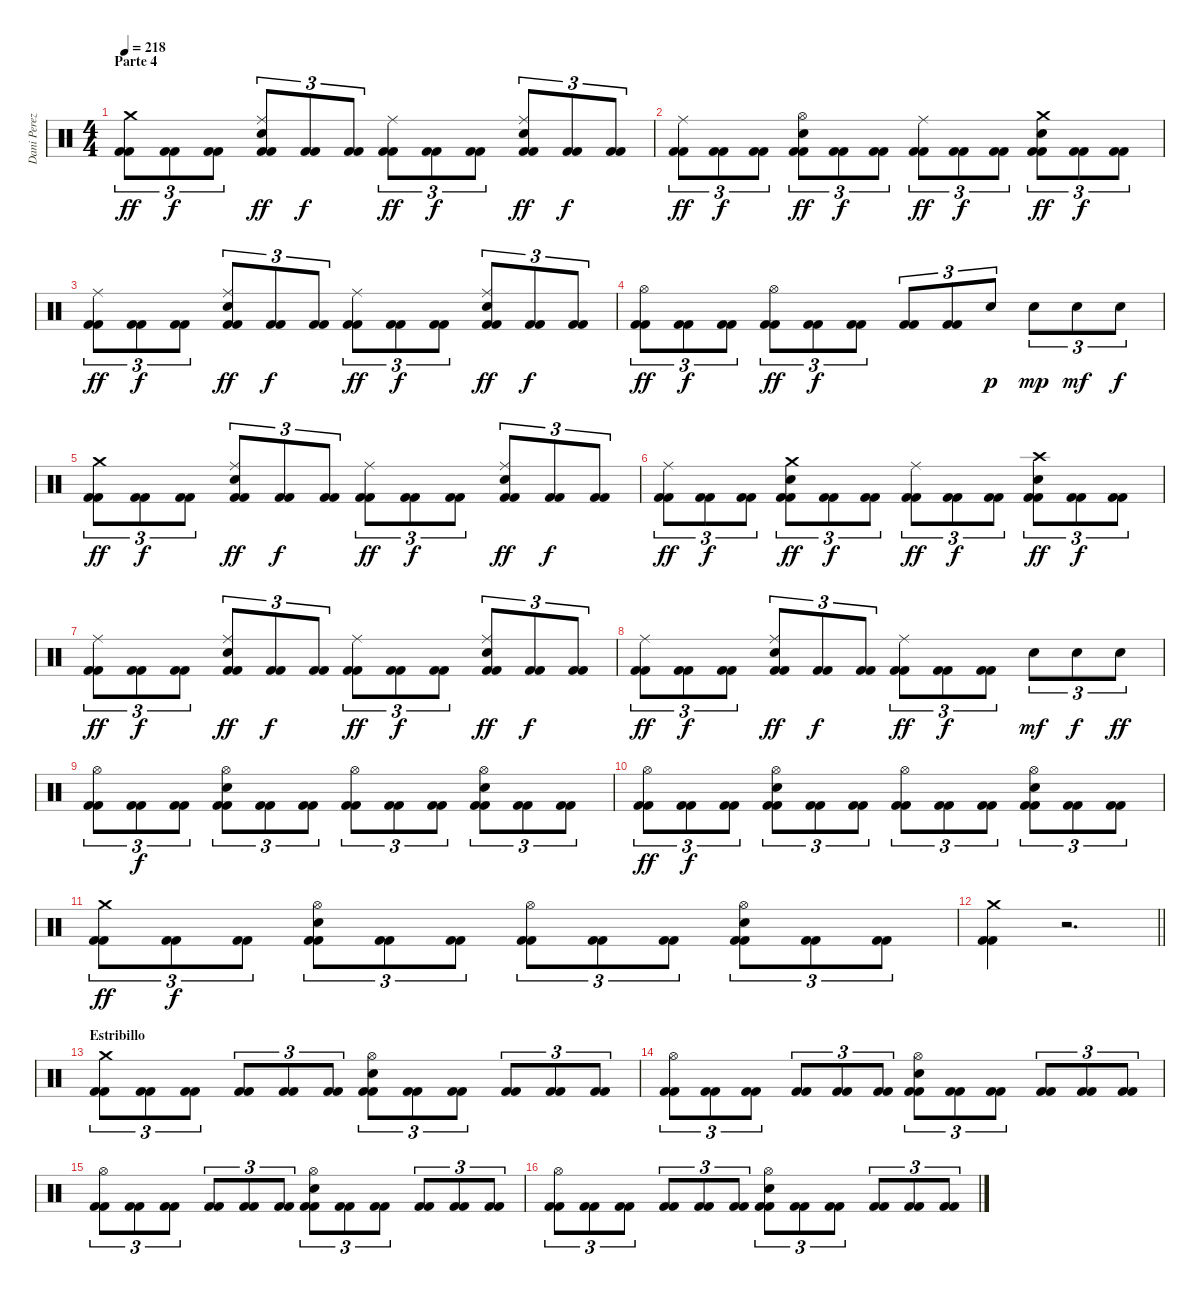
\track ("Dani Perez" "Dani Perez") {instrument percussion}
\staff {score}
\articulation defaults
\ts (4 4)
\section ("" "Parte 4")
\tempo 218
\clef neutral
\ks c
("Crash medium (hit)" "Kick (hit) 2" "Kick (hit) 2").8{tu (3 2) dy ff} ("Kick (hit) 2" "Kick (hit) 2").8{tu (3 2) dy f} ("Kick (hit) 2" "Kick (hit) 2").8{tu (3 2)} ("Ride (middle)" "Snare (hit) 2" "Kick (hit) 2" "Kick (hit) 2").8{tu (3 2) dy ff} ("Kick (hit) 2" "Kick (hit) 2").8{tu (3 2) dy f} ("Kick (hit) 2" "Kick (hit) 2").8{tu (3 2)} ("Ride (middle)" "Kick (hit) 2" "Kick (hit) 2").8{tu (3 2) dy ff} ("Kick (hit) 2" "Kick (hit) 2").8{tu (3 2) dy f} ("Kick (hit) 2" "Kick (hit) 2").8{tu (3 2)} ("Ride (middle)" "Snare (hit) 2" "Kick (hit) 2" "Kick (hit) 2").8{tu (3 2) dy ff} ("Kick (hit) 2" "Kick (hit) 2").8{tu (3 2) dy f} ("Kick (hit) 2" "Kick (hit) 2").8{tu (3 2)} |
("Ride (middle)" "Kick (hit) 2" "Kick (hit) 2").8{tu (3 2) dy ff} ("Kick (hit) 2" "Kick (hit) 2").8{tu (3 2) dy f} ("Kick (hit) 2" "Kick (hit) 2").8{tu (3 2)} ("Hi-Hat (open)" "Snare (hit) 2" "Kick (hit) 2" "Kick (hit) 2").8{tu (3 2) dy ff} ("Kick (hit) 2" "Kick (hit) 2").8{tu (3 2) dy f} ("Kick (hit) 2" "Kick (hit) 2").8{tu (3 2)} ("Ride (middle)" "Kick (hit) 2" "Kick (hit) 2").8{tu (3 2) dy ff} ("Kick (hit) 2" "Kick (hit) 2").8{tu (3 2) dy f} ("Kick (hit) 2" "Kick (hit) 2").8{tu (3 2)} ("Crash medium (hit)" "Snare (hit) 2" "Kick (hit) 2" "Kick (hit) 2").8{tu (3 2) dy ff} ("Kick (hit) 2" "Kick (hit) 2").8{tu (3 2) dy f} ("Kick (hit) 2" "Kick (hit) 2").8{tu (3 2)} |
("Ride (middle)" "Kick (hit) 2" "Kick (hit) 2").8{tu (3 2) dy ff} ("Kick (hit) 2" "Kick (hit) 2").8{tu (3 2) dy f} ("Kick (hit) 2" "Kick (hit) 2").8{tu (3 2)} ("Ride (middle)" "Snare (hit) 2" "Kick (hit) 2" "Kick (hit) 2").8{tu (3 2) dy ff} ("Kick (hit) 2" "Kick (hit) 2").8{tu (3 2) dy f} ("Kick (hit) 2" "Kick (hit) 2").8{tu (3 2)} ("Ride (middle)" "Kick (hit) 2" "Kick (hit) 2").8{tu (3 2) dy ff} ("Kick (hit) 2" "Kick (hit) 2").8{tu (3 2) dy f} ("Kick (hit) 2" "Kick (hit) 2").8{tu (3 2)} ("Ride (middle)" "Snare (hit) 2" "Kick (hit) 2" "Kick (hit) 2").8{tu (3 2) dy ff} ("Kick (hit) 2" "Kick (hit) 2").8{tu (3 2) dy f} ("Kick (hit) 2" "Kick (hit) 2").8{tu (3 2)} |
("Hi-Hat (open)" "Kick (hit) 2" "Kick (hit) 2").8{tu (3 2) dy ff} ("Kick (hit) 2" "Kick (hit) 2").8{tu (3 2) dy f} ("Kick (hit) 2" "Kick (hit) 2").8{tu (3 2)} ("Hi-Hat (open)" "Kick (hit) 2" "Kick (hit) 2").8{tu (3 2) dy ff} ("Kick (hit) 2" "Kick (hit) 2").8{tu (3 2) dy f} ("Kick (hit) 2" "Kick (hit) 2").8{tu (3 2)} ("Kick (hit) 2" "Kick (hit) 2").8{tu (3 2)} ("Kick (hit) 2" "Kick (hit) 2").8{tu (3 2)} "Snare (hit) 2".8{tu (3 2) dy p} "Snare (hit) 2".8{tu (3 2) dy mp} "Snare (hit) 2".8{tu (3 2) dy mf} "Snare (hit) 2".8{tu (3 2) dy f} |
("Crash medium (hit)" "Kick (hit) 2" "Kick (hit) 2").8{tu (3 2) dy ff} ("Kick (hit) 2" "Kick (hit) 2").8{tu (3 2) dy f} ("Kick (hit) 2" "Kick (hit) 2").8{tu (3 2)} ("Ride (middle)" "Snare (hit) 2" "Kick (hit) 2" "Kick (hit) 2").8{tu (3 2) dy ff} ("Kick (hit) 2" "Kick (hit) 2").8{tu (3 2) dy f} ("Kick (hit) 2" "Kick (hit) 2").8{tu (3 2)} ("Ride (middle)" "Kick (hit) 2" "Kick (hit) 2").8{tu (3 2) dy ff} ("Kick (hit) 2" "Kick (hit) 2").8{tu (3 2) dy f} ("Kick (hit) 2" "Kick (hit) 2").8{tu (3 2)} ("Ride (middle)" "Snare (hit) 2" "Kick (hit) 2" "Kick (hit) 2").8{tu (3 2) dy ff} ("Kick (hit) 2" "Kick (hit) 2").8{tu (3 2) dy f} ("Kick (hit) 2" "Kick (hit) 2").8{tu (3 2)} |
("Ride (middle)" "Kick (hit) 2" "Kick (hit) 2").8{tu (3 2) dy ff} ("Kick (hit) 2" "Kick (hit) 2").8{tu (3 2) dy f} ("Kick (hit) 2" "Kick (hit) 2").8{tu (3 2)} ("Crash medium (hit)" "Snare (hit) 2" "Kick (hit) 2" "Kick (hit) 2").8{tu (3 2) dy ff} ("Kick (hit) 2" "Kick (hit) 2").8{tu (3 2) dy f} ("Kick (hit) 2" "Kick (hit) 2").8{tu (3 2)} ("Ride (middle)" "Kick (hit) 2" "Kick (hit) 2").8{tu (3 2) dy ff} ("Kick (hit) 2" "Kick (hit) 2").8{tu (3 2) dy f} ("Kick (hit) 2" "Kick (hit) 2").8{tu (3 2)} ("Crash high (hit)" "Snare (hit) 2" "Kick (hit) 2" "Kick (hit) 2").8{tu (3 2) dy ff} ("Kick (hit) 2" "Kick (hit) 2").8{tu (3 2) dy f} ("Kick (hit) 2" "Kick (hit) 2").8{tu (3 2)} |
("Ride (middle)" "Kick (hit) 2" "Kick (hit) 2").8{tu (3 2) dy ff} ("Kick (hit) 2" "Kick (hit) 2").8{tu (3 2) dy f} ("Kick (hit) 2" "Kick (hit) 2").8{tu (3 2)} ("Ride (middle)" "Snare (hit) 2" "Kick (hit) 2" "Kick (hit) 2").8{tu (3 2) dy ff} ("Kick (hit) 2" "Kick (hit) 2").8{tu (3 2) dy f} ("Kick (hit) 2" "Kick (hit) 2").8{tu (3 2)} ("Ride (middle)" "Kick (hit) 2" "Kick (hit) 2").8{tu (3 2) dy ff} ("Kick (hit) 2" "Kick (hit) 2").8{tu (3 2) dy f} ("Kick (hit) 2" "Kick (hit) 2").8{tu (3 2)} ("Ride (middle)" "Snare (hit) 2" "Kick (hit) 2" "Kick (hit) 2").8{tu (3 2) dy ff} ("Kick (hit) 2" "Kick (hit) 2").8{tu (3 2) dy f} ("Kick (hit) 2" "Kick (hit) 2").8{tu (3 2)} |
("Ride (middle)" "Kick (hit) 2" "Kick (hit) 2").8{tu (3 2) dy ff} ("Kick (hit) 2" "Kick (hit) 2").8{tu (3 2) dy f} ("Kick (hit) 2" "Kick (hit) 2").8{tu (3 2)} ("Ride (middle)" "Snare (hit) 2" "Kick (hit) 2" "Kick (hit) 2").8{tu (3 2) dy ff} ("Kick (hit) 2" "Kick (hit) 2").8{tu (3 2) dy f} ("Kick (hit) 2" "Kick (hit) 2").8{tu (3 2)} ("Ride (middle)" "Kick (hit) 2" "Kick (hit) 2").8{tu (3 2) dy ff} ("Kick (hit) 2" "Kick (hit) 2").8{tu (3 2) dy f} ("Kick (hit) 2" "Kick (hit) 2").8{tu (3 2)} "Snare (hit) 2".8{tu (3 2) dy mf} "Snare (hit) 2".8{tu (3 2) dy f} "Snare (hit) 2".8{tu (3 2) dy ff} |
("Hi-Hat (open)" "Kick (hit) 2" "Kick (hit) 2").8{tu (3 2)} ("Kick (hit) 2" "Kick (hit) 2").8{tu (3 2) dy f} ("Kick (hit) 2" "Kick (hit) 2").8{tu (3 2)} ("Hi-Hat (open)" "Snare (hit) 2" "Kick (hit) 2" "Kick (hit) 2").8{tu (3 2)} ("Kick (hit) 2" "Kick (hit) 2").8{tu (3 2)} ("Kick (hit) 2" "Kick (hit) 2").8{tu (3 2)} ("Hi-Hat (open)" "Kick (hit) 2" "Kick (hit) 2").8{tu (3 2)} ("Kick (hit) 2" "Kick (hit) 2").8{tu (3 2)} ("Kick (hit) 2" "Kick (hit) 2").8{tu (3 2)} ("Hi-Hat (open)" "Snare (hit) 2" "Kick (hit) 2" "Kick (hit) 2").8{tu (3 2)} ("Kick (hit) 2" "Kick (hit) 2").8{tu (3 2)} ("Kick (hit) 2" "Kick (hit) 2").8{tu (3 2)} |
("Hi-Hat (open)" "Kick (hit) 2" "Kick (hit) 2").8{tu (3 2) dy ff} ("Kick (hit) 2" "Kick (hit) 2").8{tu (3 2) dy f} ("Kick (hit) 2" "Kick (hit) 2").8{tu (3 2)} ("Hi-Hat (open)" "Snare (hit) 2" "Kick (hit) 2" "Kick (hit) 2").8{tu (3 2)} ("Kick (hit) 2" "Kick (hit) 2").8{tu (3 2)} ("Kick (hit) 2" "Kick (hit) 2").8{tu (3 2)} ("Hi-Hat (open)" "Kick (hit) 2" "Kick (hit) 2").8{tu (3 2)} ("Kick (hit) 2" "Kick (hit) 2").8{tu (3 2)} ("Kick (hit) 2" "Kick (hit) 2").8{tu (3 2)} ("Hi-Hat (open)" "Snare (hit) 2" "Kick (hit) 2" "Kick (hit) 2").8{tu (3 2)} ("Kick (hit) 2" "Kick (hit) 2").8{tu (3 2)} ("Kick (hit) 2" "Kick (hit) 2").8{tu (3 2)} |
("Crash medium (hit)" "Kick (hit) 2" "Kick (hit) 2").8{tu (3 2) dy ff} ("Kick (hit) 2" "Kick (hit) 2").8{tu (3 2) dy f} ("Kick (hit) 2" "Kick (hit) 2").8{tu (3 2)} ("Hi-Hat (open)" "Snare (hit) 2" "Kick (hit) 2" "Kick (hit) 2").8{tu (3 2)} ("Kick (hit) 2" "Kick (hit) 2").8{tu (3 2)} ("Kick (hit) 2" "Kick (hit) 2").8{tu (3 2)} ("Hi-Hat (open)" "Kick (hit) 2" "Kick (hit) 2").8{tu (3 2)} ("Kick (hit) 2" "Kick (hit) 2").8{tu (3 2)} ("Kick (hit) 2" "Kick (hit) 2").8{tu (3 2)} ("Hi-Hat (open)" "Snare (hit) 2" "Kick (hit) 2" "Kick (hit) 2").8{tu (3 2)} ("Kick (hit) 2" "Kick (hit) 2").8{tu (3 2)} ("Kick (hit) 2" "Kick (hit) 2").8{tu (3 2)} |
\barLineRight lightlight
("Crash medium (hit)" "Kick (hit) 2" "Kick (hit) 2").4 r.2{d} |
\section ("" "Estribillo")
("Crash medium (hit)" "Kick (hit) 2" "Kick (hit) 2").8{tu (3 2)} ("Kick (hit) 2" "Kick (hit) 2").8{tu (3 2)} ("Kick (hit) 2" "Kick (hit) 2").8{tu (3 2)} ("Kick (hit) 2" "Kick (hit) 2").8{tu (3 2)} ("Kick (hit) 2" "Kick (hit) 2").8{tu (3 2)} ("Kick (hit) 2" "Kick (hit) 2").8{tu (3 2)} ("Hi-Hat (open)" "Snare (hit) 2" "Kick (hit) 2" "Kick (hit) 2").8{tu (3 2)} ("Kick (hit) 2" "Kick (hit) 2").8{tu (3 2)} ("Kick (hit) 2" "Kick (hit) 2").8{tu (3 2)} ("Kick (hit) 2" "Kick (hit) 2").8{tu (3 2)} ("Kick (hit) 2" "Kick (hit) 2").8{tu (3 2)} ("Kick (hit) 2" "Kick (hit) 2").8{tu (3 2)} |
("Hi-Hat (open)" "Kick (hit) 2" "Kick (hit) 2").8{tu (3 2)} ("Kick (hit) 2" "Kick (hit) 2").8{tu (3 2)} ("Kick (hit) 2" "Kick (hit) 2").8{tu (3 2)} ("Kick (hit) 2" "Kick (hit) 2").8{tu (3 2)} ("Kick (hit) 2" "Kick (hit) 2").8{tu (3 2)} ("Kick (hit) 2" "Kick (hit) 2").8{tu (3 2)} ("Hi-Hat (open)" "Snare (hit) 2" "Kick (hit) 2" "Kick (hit) 2").8{tu (3 2)} ("Kick (hit) 2" "Kick (hit) 2").8{tu (3 2)} ("Kick (hit) 2" "Kick (hit) 2").8{tu (3 2)} ("Kick (hit) 2" "Kick (hit) 2").8{tu (3 2)} ("Kick (hit) 2" "Kick (hit) 2").8{tu (3 2)} ("Kick (hit) 2" "Kick (hit) 2").8{tu (3 2)} |
("Hi-Hat (open)" "Kick (hit) 2" "Kick (hit) 2").8{tu (3 2)} ("Kick (hit) 2" "Kick (hit) 2").8{tu (3 2)} ("Kick (hit) 2" "Kick (hit) 2").8{tu (3 2)} ("Kick (hit) 2" "Kick (hit) 2").8{tu (3 2)} ("Kick (hit) 2" "Kick (hit) 2").8{tu (3 2)} ("Kick (hit) 2" "Kick (hit) 2").8{tu (3 2)} ("Hi-Hat (open)" "Snare (hit) 2" "Kick (hit) 2" "Kick (hit) 2").8{tu (3 2)} ("Kick (hit) 2" "Kick (hit) 2").8{tu (3 2)} ("Kick (hit) 2" "Kick (hit) 2").8{tu (3 2)} ("Kick (hit) 2" "Kick (hit) 2").8{tu (3 2)} ("Kick (hit) 2" "Kick (hit) 2").8{tu (3 2)} ("Kick (hit) 2" "Kick (hit) 2").8{tu (3 2)} |
("Hi-Hat (open)" "Kick (hit) 2" "Kick (hit) 2").8{tu (3 2)} ("Kick (hit) 2" "Kick (hit) 2").8{tu (3 2)} ("Kick (hit) 2" "Kick (hit) 2").8{tu (3 2)} ("Kick (hit) 2" "Kick (hit) 2").8{tu (3 2)} ("Kick (hit) 2" "Kick (hit) 2").8{tu (3 2)} ("Kick (hit) 2" "Kick (hit) 2").8{tu (3 2)} ("Hi-Hat (open)" "Snare (hit) 2" "Kick (hit) 2" "Kick (hit) 2").8{tu (3 2)} ("Kick (hit) 2" "Kick (hit) 2").8{tu (3 2)} ("Kick (hit) 2" "Kick (hit) 2").8{tu (3 2)} ("Kick (hit) 2" "Kick (hit) 2").8{tu (3 2)} ("Kick (hit) 2" "Kick (hit) 2").8{tu (3 2)} ("Kick (hit) 2" "Kick (hit) 2").8{tu (3 2)}
